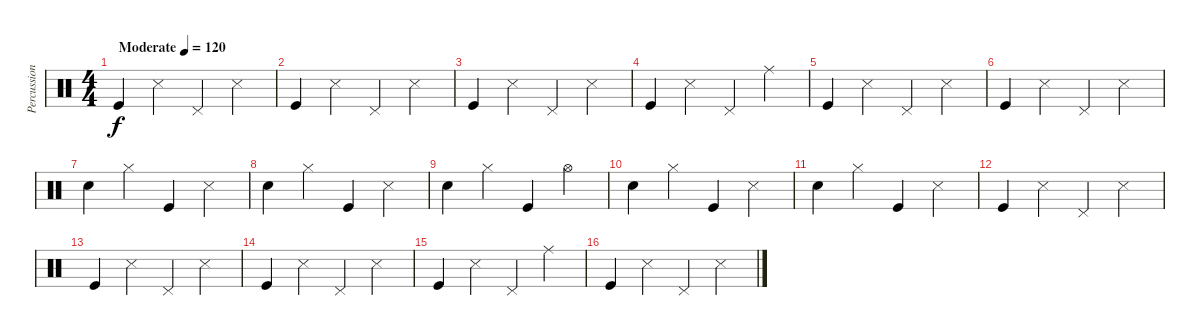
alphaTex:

\track ("Percussion" "Percussion") {instrument percussion}
\staff {score}
\articulation defaults
\ts (4 4)
\tempo (120 "Moderate")
\clef neutral
\ks c "Kick (hit)".4{dy f} "Snare (side stick) 3".4 "Pedal Hi-Hat (hit)".4 "Snare (side stick) 3".4
|
"Kick (hit)".4 "Snare (side stick) 3".4 "Pedal Hi-Hat (hit)".4 "Snare (side stick) 3".4 |
"Kick (hit)".4 "Snare (side stick) 3".4 "Pedal Hi-Hat (hit)".4 "Snare (side stick) 3".4 |
"Kick (hit)".4 "Snare (side stick) 3".4 "Pedal Hi-Hat (hit)".4 "Ride (middle)".4 |
"Kick (hit)".4 "Snare (side stick) 3".4 "Pedal Hi-Hat (hit)".4 "Snare (side stick) 3".4 |
"Kick (hit)".4 "Snare (side stick) 3".4 "Pedal Hi-Hat (hit)".4 "Snare (side stick) 3".4 |
"Snare (hit) 2".4 "Hi-Hat (closed)".4 "Kick (hit)".4 "Snare (side stick) 3".4 |
"Snare (hit) 2".4 "Hi-Hat (closed)".4 "Kick (hit)".4 "Snare (side stick) 3".4 |
"Snare (hit) 2".4 "Hi-Hat (closed)".4 "Kick (hit)".4 "Hi-Hat (open)".4 |
"Snare (hit) 2".4 "Hi-Hat (closed)".4 "Kick (hit)".4 "Snare (side stick) 3".4 |
"Snare (hit) 2".4 "Hi-Hat (closed)".4 "Kick (hit)".4 "Snare (side stick) 3".4 |
"Kick (hit)".4 "Snare (side stick) 3".4 "Pedal Hi-Hat (hit)".4 "Snare (side stick) 3".4 |
"Kick (hit)".4 "Snare (side stick) 3".4 "Pedal Hi-Hat (hit)".4 "Snare (side stick) 3".4 |
"Kick (hit)".4 "Snare (side stick) 3".4 "Pedal Hi-Hat (hit)".4 "Snare (side stick) 3".4 |
"Kick (hit)".4 "Snare (side stick) 3".4 "Pedal Hi-Hat (hit)".4 "Ride (middle)".4 |
"Kick (hit)".4 "Snare (side stick) 3".4 "Pedal Hi-Hat (hit)".4 "Snare (side stick) 3".4
